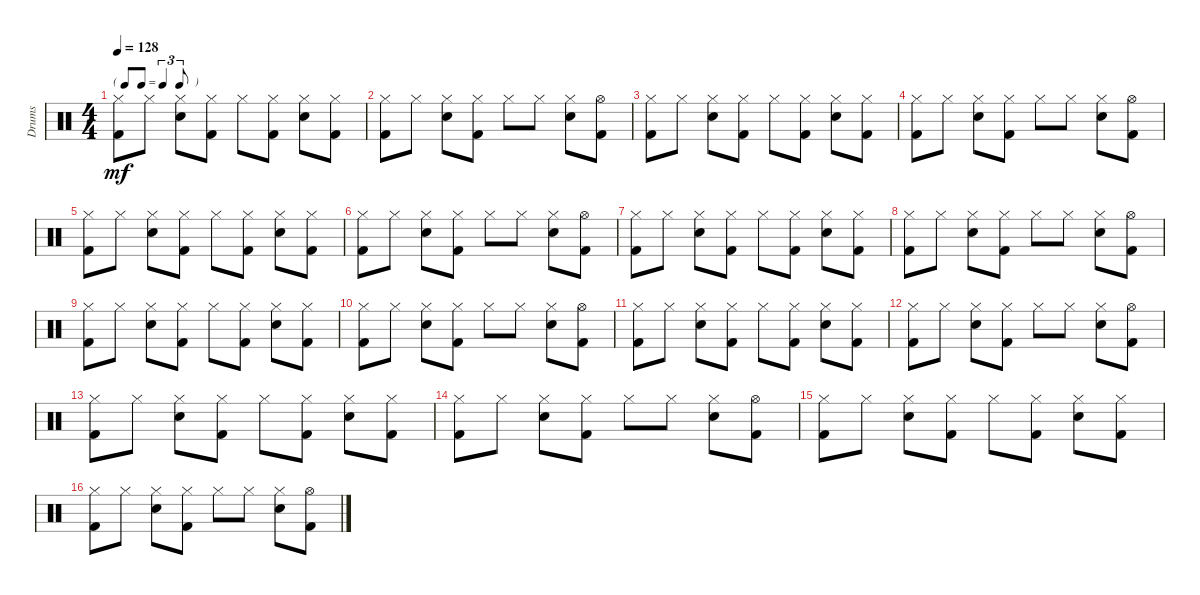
\track ("Drums" "Drums") {instrument percussion}
\staff {score}
\articulation defaults
\ts (4 4)
\tf triplet8th
\tempo 128
\clef neutral
\ks c
("Hi-Hat (closed)" "Kick (hit) 2").8{dy mf} "Hi-Hat (closed)".8 ("Hi-Hat (closed)" "Electric Snare (hit)").8 ("Hi-Hat (closed)" "Kick (hit) 2").8 "Hi-Hat (closed)".8 ("Hi-Hat (closed)" "Kick (hit) 2").8 ("Hi-Hat (closed)" "Electric Snare (hit)").8 ("Hi-Hat (closed)" "Kick (hit) 2").8 |
("Hi-Hat (closed)" "Kick (hit) 2").8 "Hi-Hat (closed)".8 ("Hi-Hat (closed)" "Electric Snare (hit)").8 ("Hi-Hat (closed)" "Kick (hit) 2").8 "Hi-Hat (closed)".8 "Hi-Hat (closed)".8 ("Hi-Hat (closed)" "Electric Snare (hit)").8 ("Hi-Hat (open)" "Kick (hit) 2").8 |
("Hi-Hat (closed)" "Kick (hit) 2").8 "Hi-Hat (closed)".8 ("Hi-Hat (closed)" "Electric Snare (hit)").8 ("Hi-Hat (closed)" "Kick (hit) 2").8 "Hi-Hat (closed)".8 ("Hi-Hat (closed)" "Kick (hit) 2").8 ("Hi-Hat (closed)" "Electric Snare (hit)").8 ("Hi-Hat (closed)" "Kick (hit) 2").8 |
("Hi-Hat (closed)" "Kick (hit) 2").8 "Hi-Hat (closed)".8 ("Hi-Hat (closed)" "Electric Snare (hit)").8 ("Hi-Hat (closed)" "Kick (hit) 2").8 "Hi-Hat (closed)".8 "Hi-Hat (closed)".8 ("Hi-Hat (closed)" "Electric Snare (hit)").8 ("Hi-Hat (open)" "Kick (hit) 2").8 |
("Hi-Hat (closed)" "Kick (hit) 2").8 "Hi-Hat (closed)".8 ("Hi-Hat (closed)" "Electric Snare (hit)").8 ("Hi-Hat (closed)" "Kick (hit) 2").8 "Hi-Hat (closed)".8 ("Hi-Hat (closed)" "Kick (hit) 2").8 ("Hi-Hat (closed)" "Electric Snare (hit)").8 ("Hi-Hat (closed)" "Kick (hit) 2").8 |
("Hi-Hat (closed)" "Kick (hit) 2").8 "Hi-Hat (closed)".8 ("Hi-Hat (closed)" "Electric Snare (hit)").8 ("Hi-Hat (closed)" "Kick (hit) 2").8 "Hi-Hat (closed)".8 "Hi-Hat (closed)".8 ("Hi-Hat (closed)" "Electric Snare (hit)").8 ("Hi-Hat (open)" "Kick (hit) 2").8 |
("Hi-Hat (closed)" "Kick (hit) 2").8 "Hi-Hat (closed)".8 ("Hi-Hat (closed)" "Electric Snare (hit)").8 ("Hi-Hat (closed)" "Kick (hit) 2").8 "Hi-Hat (closed)".8 ("Hi-Hat (closed)" "Kick (hit) 2").8 ("Hi-Hat (closed)" "Electric Snare (hit)").8 ("Hi-Hat (closed)" "Kick (hit) 2").8 |
("Hi-Hat (closed)" "Kick (hit) 2").8 "Hi-Hat (closed)".8 ("Hi-Hat (closed)" "Electric Snare (hit)").8 ("Hi-Hat (closed)" "Kick (hit) 2").8 "Hi-Hat (closed)".8 "Hi-Hat (closed)".8 ("Hi-Hat (closed)" "Electric Snare (hit)").8 ("Hi-Hat (open)" "Kick (hit) 2").8 |
("Hi-Hat (closed)" "Kick (hit) 2").8 "Hi-Hat (closed)".8 ("Hi-Hat (closed)" "Electric Snare (hit)").8 ("Hi-Hat (closed)" "Kick (hit) 2").8 "Hi-Hat (closed)".8 ("Hi-Hat (closed)" "Kick (hit) 2").8 ("Hi-Hat (closed)" "Electric Snare (hit)").8 ("Hi-Hat (closed)" "Kick (hit) 2").8 |
("Hi-Hat (closed)" "Kick (hit) 2").8 "Hi-Hat (closed)".8 ("Hi-Hat (closed)" "Electric Snare (hit)").8 ("Hi-Hat (closed)" "Kick (hit) 2").8 "Hi-Hat (closed)".8 "Hi-Hat (closed)".8 ("Hi-Hat (closed)" "Electric Snare (hit)").8 ("Hi-Hat (open)" "Kick (hit) 2").8 |
("Hi-Hat (closed)" "Kick (hit) 2").8 "Hi-Hat (closed)".8 ("Hi-Hat (closed)" "Electric Snare (hit)").8 ("Hi-Hat (closed)" "Kick (hit) 2").8 "Hi-Hat (closed)".8 ("Hi-Hat (closed)" "Kick (hit) 2").8 ("Hi-Hat (closed)" "Electric Snare (hit)").8 ("Hi-Hat (closed)" "Kick (hit) 2").8 |
("Hi-Hat (closed)" "Kick (hit) 2").8 "Hi-Hat (closed)".8 ("Hi-Hat (closed)" "Electric Snare (hit)").8 ("Hi-Hat (closed)" "Kick (hit) 2").8 "Hi-Hat (closed)".8 "Hi-Hat (closed)".8 ("Hi-Hat (closed)" "Electric Snare (hit)").8 ("Hi-Hat (open)" "Kick (hit) 2").8 |
("Hi-Hat (closed)" "Kick (hit) 2").8 "Hi-Hat (closed)".8 ("Hi-Hat (closed)" "Electric Snare (hit)").8 ("Hi-Hat (closed)" "Kick (hit) 2").8 "Hi-Hat (closed)".8 ("Hi-Hat (closed)" "Kick (hit) 2").8 ("Hi-Hat (closed)" "Electric Snare (hit)").8 ("Hi-Hat (closed)" "Kick (hit) 2").8 |
("Hi-Hat (closed)" "Kick (hit) 2").8 "Hi-Hat (closed)".8 ("Hi-Hat (closed)" "Electric Snare (hit)").8 ("Hi-Hat (closed)" "Kick (hit) 2").8 "Hi-Hat (closed)".8 "Hi-Hat (closed)".8 ("Hi-Hat (closed)" "Electric Snare (hit)").8 ("Hi-Hat (open)" "Kick (hit) 2").8 |
("Hi-Hat (closed)" "Kick (hit) 2").8 "Hi-Hat (closed)".8 ("Hi-Hat (closed)" "Electric Snare (hit)").8 ("Hi-Hat (closed)" "Kick (hit) 2").8 "Hi-Hat (closed)".8 ("Hi-Hat (closed)" "Kick (hit) 2").8 ("Hi-Hat (closed)" "Electric Snare (hit)").8 ("Hi-Hat (closed)" "Kick (hit) 2").8 |
("Hi-Hat (closed)" "Kick (hit) 2").8 "Hi-Hat (closed)".8 ("Hi-Hat (closed)" "Electric Snare (hit)").8 ("Hi-Hat (closed)" "Kick (hit) 2").8 "Hi-Hat (closed)".8 "Hi-Hat (closed)".8 ("Hi-Hat (closed)" "Electric Snare (hit)").8 ("Hi-Hat (open)" "Kick (hit) 2").8
